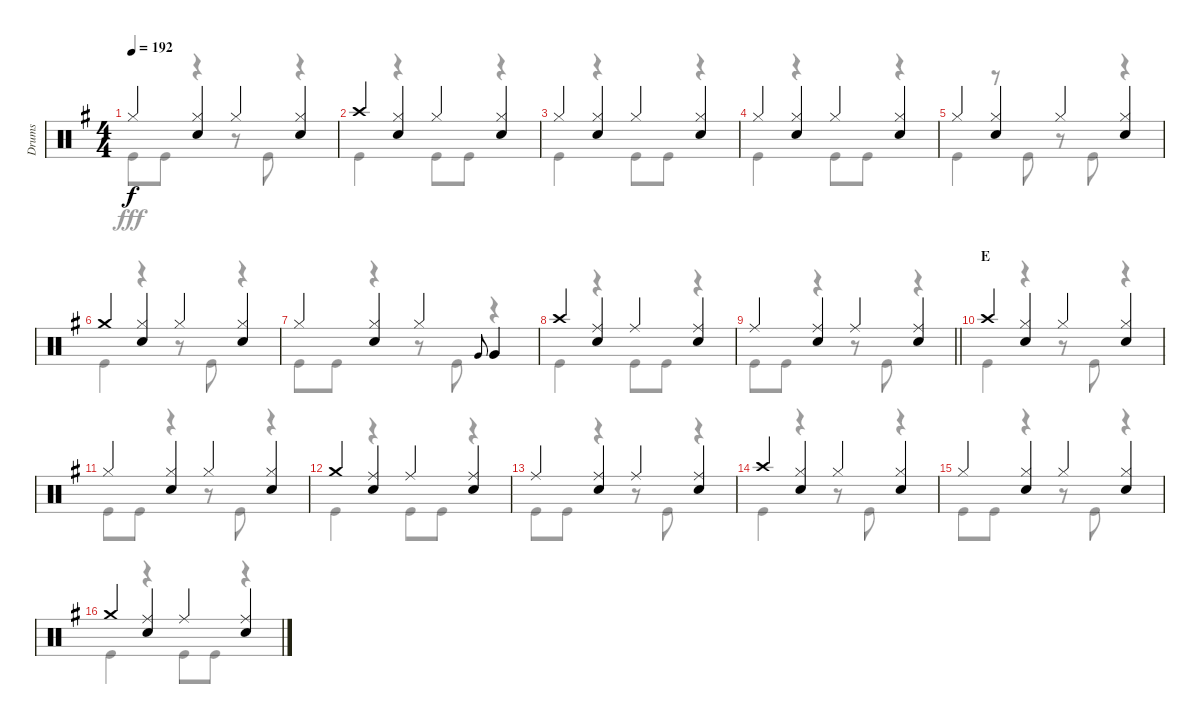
\track ("Drums" "Drums") {instrument percussion}
\staff {score}
\articulation defaults
\voice
\ts (4 4)
\tempo 192
\clef neutral
\ks g "Hi-Hat (closed)".4{dy f}
("Hi-Hat (closed)" "Snare (hit) 2").4 "Hi-Hat (closed)".4 ("Hi-Hat (closed)" "Snare (hit) 2").4 |
"Crash high (hit)".4 ("Hi-Hat (closed)" "Snare (hit) 2").4 "Hi-Hat (closed)".4 ("Hi-Hat (closed)" "Snare (hit) 2").4 |
"Hi-Hat (closed)".4 ("Hi-Hat (closed)" "Snare (hit) 2").4 "Hi-Hat (closed)".4 ("Hi-Hat (closed)" "Snare (hit) 2").4 |
"Hi-Hat (closed)".4 ("Hi-Hat (closed)" "Snare (hit) 2").4 "Hi-Hat (closed)".4 ("Hi-Hat (closed)" "Snare (hit) 2").4 |
"Hi-Hat (closed)".4 ("Hi-Hat (closed)" "Snare (hit) 2").4 "Hi-Hat (closed)".4 ("Hi-Hat (closed)" "Snare (hit) 2").4 |
"Crash medium (hit)".4 ("Hi-Hat (closed)" "Snare (hit) 2").4 "Hi-Hat (closed)".4 ("Hi-Hat (closed)" "Snare (hit) 2").4 |
"Hi-Hat (closed)".4 ("Hi-Hat (closed)" "Snare (hit) 2").4 "Hi-Hat (closed)".4 "Very Low Tom (hit)".8{gr onbeat} "Very Low Tom (hit)".4 |
"Crash high (hit)".4 ("Ride (middle)" "Snare (hit) 2").4 "Ride (middle)".4 ("Ride (middle)" "Snare (hit) 2").4 |
\barLineRight lightlight "Ride (middle)".4
("Ride (middle)" "Snare (hit) 2").4 "Ride (middle)".4 ("Ride (middle)" "Snare (hit) 2").4 |
\section ("" "E")
"Crash high (hit)".4 ("Hi-Hat (closed)" "Snare (hit) 2").4 "Hi-Hat (closed)".4 ("Hi-Hat (closed)" "Snare (hit) 2").4 |
"Hi-Hat (closed)".4 ("Hi-Hat (closed)" "Snare (hit) 2").4 "Hi-Hat (closed)".4 ("Hi-Hat (closed)" "Snare (hit) 2").4 |
"Crash medium (hit)".4 ("Ride (middle)" "Snare (hit) 2").4 "Ride (middle)".4 ("Ride (middle)" "Snare (hit) 2").4 |
"Ride (middle)".4 ("Ride (middle)" "Snare (hit) 2").4 "Ride (middle)".4 ("Ride (middle)" "Snare (hit) 2").4 |
"Crash high (hit)".4 ("Hi-Hat (closed)" "Snare (hit) 2").4 "Hi-Hat (closed)".4 ("Hi-Hat (closed)" "Snare (hit) 2").4 |
"Hi-Hat (closed)".4 ("Hi-Hat (closed)" "Snare (hit) 2").4 "Hi-Hat (closed)".4 ("Hi-Hat (closed)" "Snare (hit) 2").4 |
"Crash medium (hit)".4 ("Ride (middle)" "Snare (hit) 2").4 "Ride (middle)".4 ("Ride (middle)" "Snare (hit) 2").4
\voice
\clef neutral
\ottava regular
\simile none
\ks g "Kick (hit)".8{dy fff} "Kick (hit)".8
r.4 r.8 "Kick (hit)".8 r.4 |
"Kick (hit)".4 r.4 "Kick (hit)".8 "Kick (hit)".8 r.4 |
"Kick (hit)".4 r.4 "Kick (hit)".8 "Kick (hit)".8 r.4 |
"Kick (hit)".4 r.4 "Kick (hit)".8 "Kick (hit)".8 r.4 |
"Kick (hit)".4 r.8 "Kick (hit)".8 r.8 "Kick (hit)".8 r.4 |
"Kick (hit)".4 r.4 r.8 "Kick (hit)".8 r.4 |
"Kick (hit)".8 "Kick (hit)".8 r.4 r.8 "Kick (hit)".8 r.4 |
"Kick (hit)".4 r.4 "Kick (hit)".8 "Kick (hit)".8 r.4 |
\barLineRight lightlight "Kick (hit)".8 "Kick (hit)".8
r.4 r.8 "Kick (hit)".8 r.4 |
"Kick (hit)".4 r.4 r.8 "Kick (hit)".8 r.4 |
"Kick (hit)".8 "Kick (hit)".8 r.4 r.8 "Kick (hit)".8 r.4 |
"Kick (hit)".4 r.4 "Kick (hit)".8 "Kick (hit)".8 r.4 |
"Kick (hit)".8 "Kick (hit)".8 r.4 r.8 "Kick (hit)".8 r.4 |
"Kick (hit)".4 r.4 r.8 "Kick (hit)".8 r.4 |
"Kick (hit)".8 "Kick (hit)".8 r.4 r.8 "Kick (hit)".8 r.4 |
"Kick (hit)".4 r.4 "Kick (hit)".8 "Kick (hit)".8 r.4
